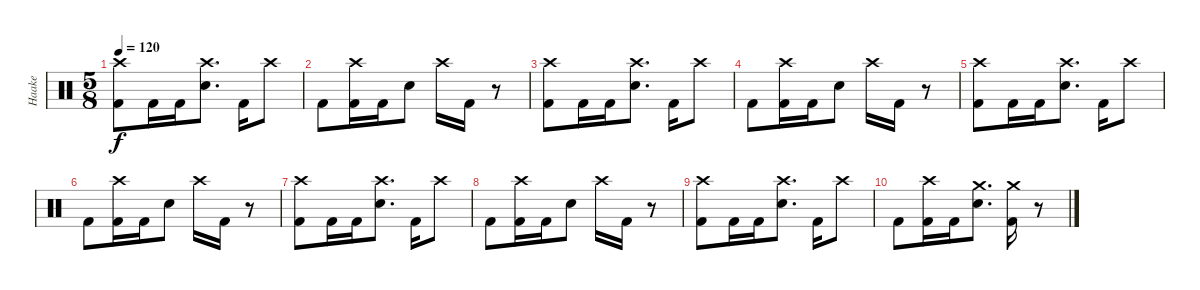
\track ("Haake" "Haake") {instrument percussion}
\staff {score}
\articulation defaults
\ts (5 8)
\tempo 120
\clef neutral
\ks c
("Crash high (hit)" "Kick (hit) 2").8{dy f} "Kick (hit) 2".16 "Kick (hit) 2".16 ("Crash high (hit)" "Electric Snare (hit)").8{d} "Kick (hit) 2".16 "Crash high (hit)".8 |
"Kick (hit) 2".8 ("Crash high (hit)" "Kick (hit) 2").16 "Kick (hit) 2".16 "Electric Snare (hit)".8 "Crash high (hit)".16 "Kick (hit) 2".16 r.8 |
("Crash high (hit)" "Kick (hit) 2").8 "Kick (hit) 2".16 "Kick (hit) 2".16 ("Crash high (hit)" "Electric Snare (hit)").8{d} "Kick (hit) 2".16 "Crash high (hit)".8 |
"Kick (hit) 2".8 ("Crash high (hit)" "Kick (hit) 2").16 "Kick (hit) 2".16 "Electric Snare (hit)".8 "Crash high (hit)".16 "Kick (hit) 2".16 r.8 |
("Crash high (hit)" "Kick (hit) 2").8 "Kick (hit) 2".16 "Kick (hit) 2".16 ("Crash high (hit)" "Electric Snare (hit)").8{d} "Kick (hit) 2".16 "Crash high (hit)".8 |
"Kick (hit) 2".8 ("Crash high (hit)" "Kick (hit) 2").16 "Kick (hit) 2".16 "Electric Snare (hit)".8 "Crash high (hit)".16 "Kick (hit) 2".16 r.8 |
("Crash high (hit)" "Kick (hit) 2").8 "Kick (hit) 2".16 "Kick (hit) 2".16 ("Crash high (hit)" "Electric Snare (hit)").8{d} "Kick (hit) 2".16 "Crash high (hit)".8 |
"Kick (hit) 2".8 ("Crash high (hit)" "Kick (hit) 2").16 "Kick (hit) 2".16 "Electric Snare (hit)".8 "Crash high (hit)".16 "Kick (hit) 2".16 r.8 |
("Crash high (hit)" "Kick (hit) 2").8 "Kick (hit) 2".16 "Kick (hit) 2".16 ("Crash high (hit)" "Electric Snare (hit)").8{d} "Kick (hit) 2".16 "Crash high (hit)".8 |
"Kick (hit) 2".8 ("Crash high (hit)" "Kick (hit) 2").16 "Kick (hit) 2".16 ("Crash medium (hit)" "Electric Snare (hit)").8{d} ("Crash medium (hit)" "Kick (hit) 2").16 r.8
